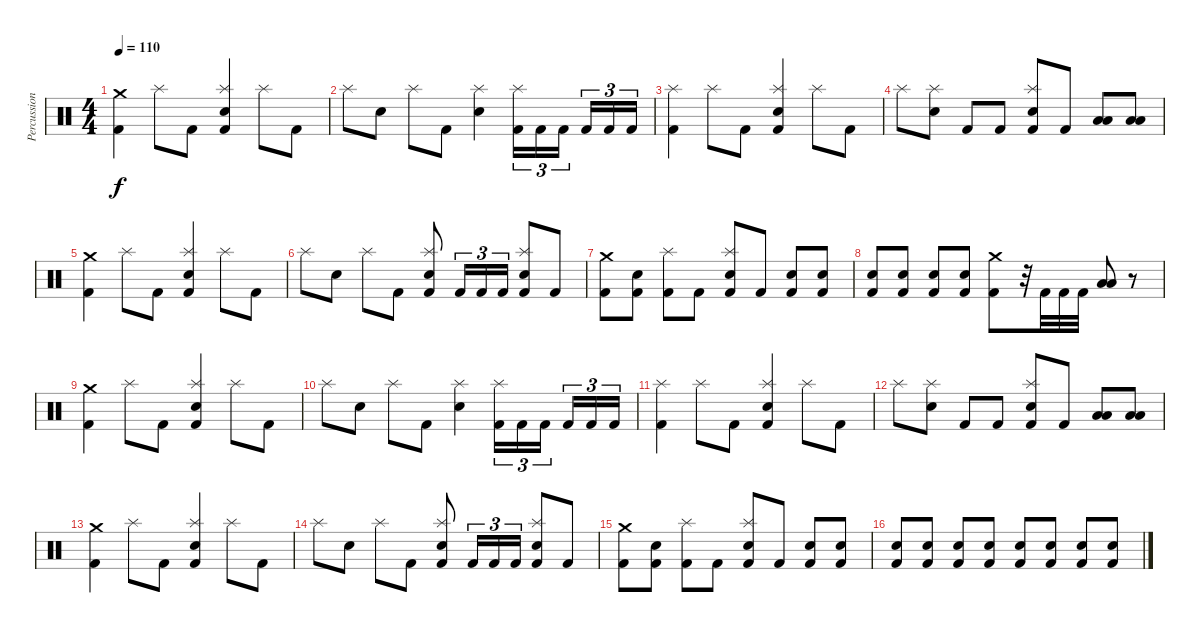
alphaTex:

\track ("Percussion" "Percussion") {instrument percussion}
\staff {score}
\articulation defaults
\ts (4 4)
\tempo 110
\clef neutral
\ks c
("Kick (hit) 2" "Crash medium (hit)").4{dy f} "Splash (hit)".8 "Kick (hit) 2".8 ("Kick (hit) 2" "Splash (hit)" "Snare (hit) 2").4 "Splash (hit)".8 "Kick (hit) 2".8 |
"Splash (hit)".8 "Snare (hit) 2".8 "Splash (hit)".8 "Kick (hit) 2".8 ("Splash (hit)" "Snare (hit) 2").4 ("Kick (hit) 2" "Splash (hit)").16{tu (3 2)} "Kick (hit) 2".16{tu (3 2)} "Kick (hit) 2".16{tu (3 2)} "Kick (hit) 2".16{tu (3 2)} "Kick (hit) 2".16{tu (3 2)} "Kick (hit) 2".16{tu (3 2)} |
("Kick (hit) 2" "Splash (hit)").4 "Splash (hit)".8 "Kick (hit) 2".8 ("Kick (hit) 2" "Splash (hit)" "Snare (hit) 2").4 "Splash (hit)".8 "Kick (hit) 2".8 |
"Splash (hit)".8 ("Splash (hit)" "Snare (hit) 2").8 "Kick (hit) 2".8 "Kick (hit) 2".8 ("Kick (hit) 2" "Splash (hit)" "Snare (hit) 2").8 "Kick (hit) 2".8 ("Low Tom (hit)" "Low Tom (hit)").8 ("Low Tom (hit)" "Low Tom (hit)").8 |
("Kick (hit) 2" "Crash medium (hit)").4 "Splash (hit)".8 "Kick (hit) 2".8 ("Kick (hit) 2" "Splash (hit)" "Snare (hit) 2").4 "Splash (hit)".8 "Kick (hit) 2".8 |
"Splash (hit)".8 "Snare (hit) 2".8 "Splash (hit)".8 "Kick (hit) 2".8 ("Kick (hit) 2" "Splash (hit)" "Snare (hit) 2").8 "Kick (hit) 2".16{tu (3 2)} "Kick (hit) 2".16{tu (3 2)} "Kick (hit) 2".16{tu (3 2)} ("Kick (hit) 2" "Snare (hit) 2" "Splash (hit)").8 "Kick (hit) 2".8 |
("Kick (hit) 2" "Crash medium (hit)").8 ("Kick (hit) 2" "Snare (hit) 2").8 ("Kick (hit) 2" "Splash (hit)").8 "Kick (hit) 2".8 ("Kick (hit) 2" "Snare (hit) 2" "Splash (hit)").8 "Kick (hit) 2".8 ("Kick (hit) 2" "Snare (hit) 2").8 ("Kick (hit) 2" "Snare (hit) 2").8 |
("Kick (hit) 2" "Snare (hit) 2").8 ("Kick (hit) 2" "Snare (hit) 2").8 ("Kick (hit) 2" "Snare (hit) 2").8 ("Kick (hit) 2" "Snare (hit) 2").8 ("Kick (hit) 2" "Crash medium (hit)").8 r.32 "Kick (hit) 2".32 "Kick (hit) 2".32 "Kick (hit) 2".32 ("Low Tom (hit)" "Low Tom (hit)").8 r.8 |
("Kick (hit) 2" "Crash medium (hit)").4 "Splash (hit)".8 "Kick (hit) 2".8 ("Kick (hit) 2" "Splash (hit)" "Snare (hit) 2").4 "Splash (hit)".8 "Kick (hit) 2".8 |
"Splash (hit)".8 "Snare (hit) 2".8 "Splash (hit)".8 "Kick (hit) 2".8 ("Splash (hit)" "Snare (hit) 2").4 ("Kick (hit) 2" "Splash (hit)").16{tu (3 2)} "Kick (hit) 2".16{tu (3 2)} "Kick (hit) 2".16{tu (3 2)} "Kick (hit) 2".16{tu (3 2)} "Kick (hit) 2".16{tu (3 2)} "Kick (hit) 2".16{tu (3 2)} |
("Kick (hit) 2" "Splash (hit)").4 "Splash (hit)".8 "Kick (hit) 2".8 ("Kick (hit) 2" "Splash (hit)" "Snare (hit) 2").4 "Splash (hit)".8 "Kick (hit) 2".8 |
"Splash (hit)".8 ("Splash (hit)" "Snare (hit) 2").8 "Kick (hit) 2".8 "Kick (hit) 2".8 ("Kick (hit) 2" "Splash (hit)" "Snare (hit) 2").8 "Kick (hit) 2".8 ("Low Tom (hit)" "Low Tom (hit)").8 ("Low Tom (hit)" "Low Tom (hit)").8 |
("Kick (hit) 2" "Crash medium (hit)").4 "Splash (hit)".8 "Kick (hit) 2".8 ("Kick (hit) 2" "Splash (hit)" "Snare (hit) 2").4 "Splash (hit)".8 "Kick (hit) 2".8 |
"Splash (hit)".8 "Snare (hit) 2".8 "Splash (hit)".8 "Kick (hit) 2".8 ("Kick (hit) 2" "Splash (hit)" "Snare (hit) 2").8 "Kick (hit) 2".16{tu (3 2)} "Kick (hit) 2".16{tu (3 2)} "Kick (hit) 2".16{tu (3 2)} ("Kick (hit) 2" "Snare (hit) 2" "Splash (hit)").8 "Kick (hit) 2".8 |
("Kick (hit) 2" "Crash medium (hit)").8 ("Kick (hit) 2" "Snare (hit) 2").8 ("Kick (hit) 2" "Splash (hit)").8 "Kick (hit) 2".8 ("Kick (hit) 2" "Snare (hit) 2" "Splash (hit)").8 "Kick (hit) 2".8 ("Kick (hit) 2" "Snare (hit) 2").8 ("Kick (hit) 2" "Snare (hit) 2").8 |
("Kick (hit) 2" "Snare (hit) 2").8 ("Kick (hit) 2" "Snare (hit) 2").8 ("Kick (hit) 2" "Snare (hit) 2").8 ("Kick (hit) 2" "Snare (hit) 2").8 ("Kick (hit) 2" "Snare (hit) 2").8 ("Kick (hit) 2" "Snare (hit) 2").8 ("Kick (hit) 2" "Snare (hit) 2").8 ("Kick (hit) 2" "Snare (hit) 2").8
